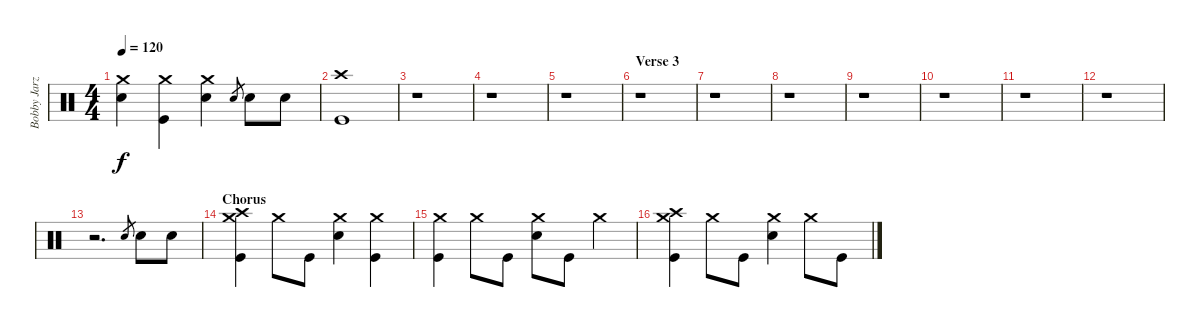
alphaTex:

\track ("Bobby Jarzombek" "Bobby Jarz") {instrument percussion}
\staff {score}
\articulation defaults
\ts (4 4)
\tempo 120
\clef neutral
\ks c
("Crash medium (hit)" "Electric Snare (hit)").4{dy f} ("Crash medium (hit)" "Kick (hit)").4 ("Crash medium (hit)" "Electric Snare (hit)").4 "Electric Snare (hit)".8{gr} "Electric Snare (hit)".8 "Electric Snare (hit)".8 |
("Crash high (hit)" "Kick (hit)").1 |
r.1 |
r.1 |
r.1 |
\section ("" "Verse 3")
r.1 |
r.1 |
r.1 |
r.1 |
r.1 |
r.1 |
r.1 |
r.2{d} "Electric Snare (hit)".8{gr} "Electric Snare (hit)".8 "Electric Snare (hit)".8 |
\section ("" "Chorus")
("Crash high (hit)" "Crash medium (hit)" "Kick (hit)").4 "Crash medium (hit)".8 "Kick (hit)".8 ("Crash medium (hit)" "Electric Snare (hit)").4 ("Crash medium (hit)" "Kick (hit)").4 |
("Crash medium (hit)" "Kick (hit)").4 "Crash medium (hit)".8 "Kick (hit)".8 ("Crash medium (hit)" "Electric Snare (hit)").8 "Kick (hit)".8 "Crash medium (hit)".4 |
("Crash high (hit)" "Crash medium (hit)" "Kick (hit)").4 "Crash medium (hit)".8 "Kick (hit)".8 ("Crash medium (hit)" "Electric Snare (hit)").4 "Crash medium (hit)".8 "Kick (hit)".8
